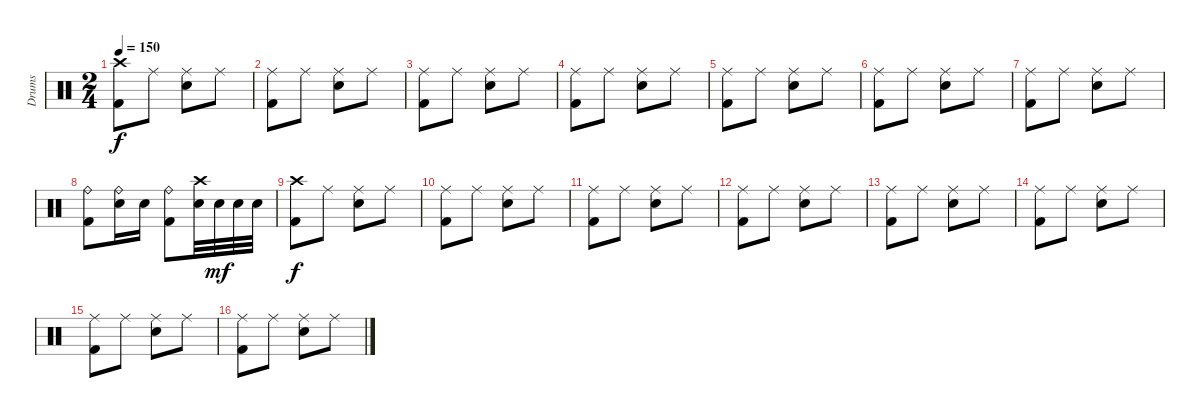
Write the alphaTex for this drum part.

\track ("Drums" "Drums") {instrument percussion}
\staff {score}
\articulation defaults
\ts (2 4)
\tempo 150
\clef neutral
\ks c
("Crash high (hit)" "Kick (hit) 2").8{dy f} "Ride (middle)".8 ("Ride (middle)" "Electric Snare (hit)").8 "Ride (middle)".8 |
("Ride (middle)" "Kick (hit) 2").8 "Ride (middle)".8 ("Ride (middle)" "Electric Snare (hit)").8 "Ride (middle)".8 |
("Ride (middle)" "Kick (hit) 2").8 "Ride (middle)".8 ("Ride (middle)" "Electric Snare (hit)").8 "Ride (middle)".8 |
("Ride (middle)" "Kick (hit) 2").8 "Ride (middle)".8 ("Ride (middle)" "Electric Snare (hit)").8 "Ride (middle)".8 |
("Ride (middle)" "Kick (hit) 2").8 "Ride (middle)".8 ("Ride (middle)" "Electric Snare (hit)").8 "Ride (middle)".8 |
("Ride (middle)" "Kick (hit) 2").8 "Ride (middle)".8 ("Ride (middle)" "Electric Snare (hit)").8 "Ride (middle)".8 |
("Ride (middle)" "Kick (hit) 2").8 "Ride (middle)".8 ("Ride (middle)" "Electric Snare (hit)").8 "Ride (middle)".8 |
("Ride (bell)" "Kick (hit) 2").8 ("Ride (bell)" "Electric Snare (hit)").16 "Electric Snare (hit)".16 ("Ride (bell)" "Kick (hit) 2").8 ("Crash high (hit)" "Electric Snare (hit)").32 "Electric Snare (hit)".32{dy mf} "Electric Snare (hit)".32 "Electric Snare (hit)".32 |
("Crash high (hit)" "Kick (hit) 2").8{dy f} "Ride (middle)".8 ("Ride (middle)" "Electric Snare (hit)").8 "Ride (middle)".8 |
("Ride (middle)" "Kick (hit) 2").8 "Ride (middle)".8 ("Ride (middle)" "Electric Snare (hit)").8 "Ride (middle)".8 |
("Ride (middle)" "Kick (hit) 2").8 "Ride (middle)".8 ("Ride (middle)" "Electric Snare (hit)").8 "Ride (middle)".8 |
("Ride (middle)" "Kick (hit) 2").8 "Ride (middle)".8 ("Ride (middle)" "Electric Snare (hit)").8 "Ride (middle)".8 |
("Ride (middle)" "Kick (hit) 2").8 "Ride (middle)".8 ("Ride (middle)" "Electric Snare (hit)").8 "Ride (middle)".8 |
("Ride (middle)" "Kick (hit) 2").8 "Ride (middle)".8 ("Ride (middle)" "Electric Snare (hit)").8 "Ride (middle)".8 |
("Ride (middle)" "Kick (hit) 2").8 "Ride (middle)".8 ("Ride (middle)" "Electric Snare (hit)").8 "Ride (middle)".8 |
("Ride (middle)" "Kick (hit) 2").8 "Ride (middle)".8 ("Ride (middle)" "Electric Snare (hit)").8 "Ride (middle)".8
